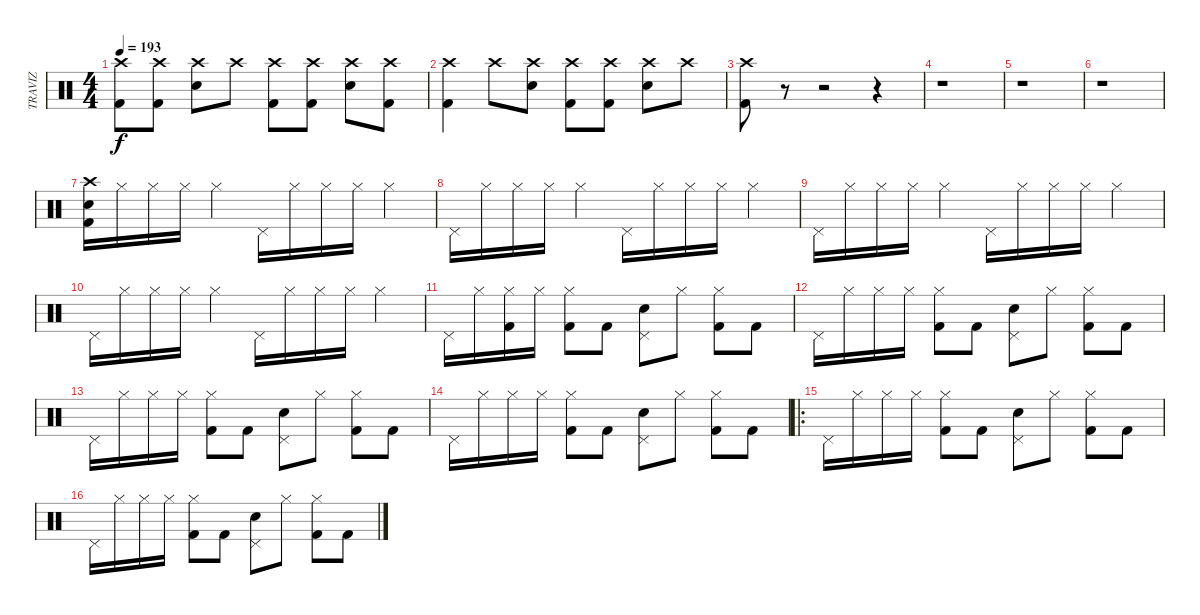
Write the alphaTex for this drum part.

\track ("TRAVIZ" "TRAVIZ") {instrument percussion}
\staff {score}
\articulation defaults
\ts (4 4)
\tempo 193
\clef neutral
\ks c
("Crash high (hit)" "Kick (hit) 2").8{dy f} ("Crash high (hit)" "Kick (hit) 2").8 ("Crash high (hit)" "Snare (hit) 2").8 "Crash high (hit)".8 ("Crash high (hit)" "Kick (hit) 2").8 ("Crash high (hit)" "Kick (hit) 2").8 ("Crash high (hit)" "Snare (hit) 2").8 ("Crash high (hit)" "Kick (hit) 2").8 |
("Crash high (hit)" "Kick (hit) 2").4 "Crash high (hit)".8 ("Crash high (hit)" "Snare (hit) 2").8 ("Crash high (hit)" "Kick (hit) 2").8 ("Crash high (hit)" "Kick (hit) 2").8 ("Crash high (hit)" "Snare (hit) 2").8 "Crash high (hit)".8 |
("Crash high (hit)" "Kick (hit) 2").8 r.8 r.2 r.4 |
r.1 |
r.1 |
r.1 |
("Crash high (hit)" "Snare (hit) 2" "Kick (hit) 2").16 "Hi-Hat (closed)".16 "Hi-Hat (closed)".16 "Hi-Hat (closed)".16 "Hi-Hat (closed)".4 "Pedal Hi-Hat (hit)".16 "Hi-Hat (closed)".16 "Hi-Hat (closed)".16 "Hi-Hat (closed)".16 "Hi-Hat (closed)".4 |
"Pedal Hi-Hat (hit)".16 "Hi-Hat (closed)".16 "Hi-Hat (closed)".16 "Hi-Hat (closed)".16 "Hi-Hat (closed)".4 "Pedal Hi-Hat (hit)".16 "Hi-Hat (closed)".16 "Hi-Hat (closed)".16 "Hi-Hat (closed)".16 "Hi-Hat (closed)".4 |
"Pedal Hi-Hat (hit)".16 "Hi-Hat (closed)".16 "Hi-Hat (closed)".16 "Hi-Hat (closed)".16 "Hi-Hat (closed)".4 "Pedal Hi-Hat (hit)".16 "Hi-Hat (closed)".16 "Hi-Hat (closed)".16 "Hi-Hat (closed)".16 "Hi-Hat (closed)".4 |
"Pedal Hi-Hat (hit)".16 "Hi-Hat (closed)".16 "Hi-Hat (closed)".16 "Hi-Hat (closed)".16 "Hi-Hat (closed)".4 "Pedal Hi-Hat (hit)".16 "Hi-Hat (closed)".16 "Hi-Hat (closed)".16 "Hi-Hat (closed)".16 "Hi-Hat (closed)".4 |
"Pedal Hi-Hat (hit)".16 "Hi-Hat (closed)".16 ("Hi-Hat (closed)" "Kick (hit) 2").16 "Hi-Hat (closed)".16 ("Hi-Hat (closed)" "Kick (hit) 2").8 "Kick (hit) 2".8 ("Snare (hit) 2" "Pedal Hi-Hat (hit)").8 "Hi-Hat (closed)".8 ("Hi-Hat (closed)" "Kick (hit) 2").8 "Kick (hit) 2".8 |
"Pedal Hi-Hat (hit)".16 "Hi-Hat (closed)".16 "Hi-Hat (closed)".16 "Hi-Hat (closed)".16 ("Hi-Hat (closed)" "Kick (hit) 2").8 "Kick (hit) 2".8 ("Snare (hit) 2" "Pedal Hi-Hat (hit)").8 "Hi-Hat (closed)".8 ("Hi-Hat (closed)" "Kick (hit) 2").8 "Kick (hit) 2".8 |
"Pedal Hi-Hat (hit)".16 "Hi-Hat (closed)".16 "Hi-Hat (closed)".16 "Hi-Hat (closed)".16 ("Hi-Hat (closed)" "Kick (hit) 2").8 "Kick (hit) 2".8 ("Snare (hit) 2" "Pedal Hi-Hat (hit)").8 "Hi-Hat (closed)".8 ("Hi-Hat (closed)" "Kick (hit) 2").8 "Kick (hit) 2".8 |
"Pedal Hi-Hat (hit)".16 "Hi-Hat (closed)".16 "Hi-Hat (closed)".16 "Hi-Hat (closed)".16 ("Hi-Hat (closed)" "Kick (hit) 2").8 "Kick (hit) 2".8 ("Snare (hit) 2" "Pedal Hi-Hat (hit)").8 "Hi-Hat (closed)".8 ("Hi-Hat (closed)" "Kick (hit) 2").8 "Kick (hit) 2".8 |
\ro "Pedal Hi-Hat (hit)".16 "Hi-Hat (closed)".16 "Hi-Hat (closed)".16 "Hi-Hat (closed)".16
("Hi-Hat (closed)" "Kick (hit) 2").8 "Kick (hit) 2".8 ("Snare (hit) 2" "Pedal Hi-Hat (hit)").8 "Hi-Hat (closed)".8 ("Hi-Hat (closed)" "Kick (hit) 2").8 "Kick (hit) 2".8 |
"Pedal Hi-Hat (hit)".16 "Hi-Hat (closed)".16 "Hi-Hat (closed)".16 "Hi-Hat (closed)".16 ("Hi-Hat (closed)" "Kick (hit) 2").8 "Kick (hit) 2".8 ("Snare (hit) 2" "Pedal Hi-Hat (hit)").8 "Hi-Hat (closed)".8 ("Hi-Hat (closed)" "Kick (hit) 2").8 "Kick (hit) 2".8
